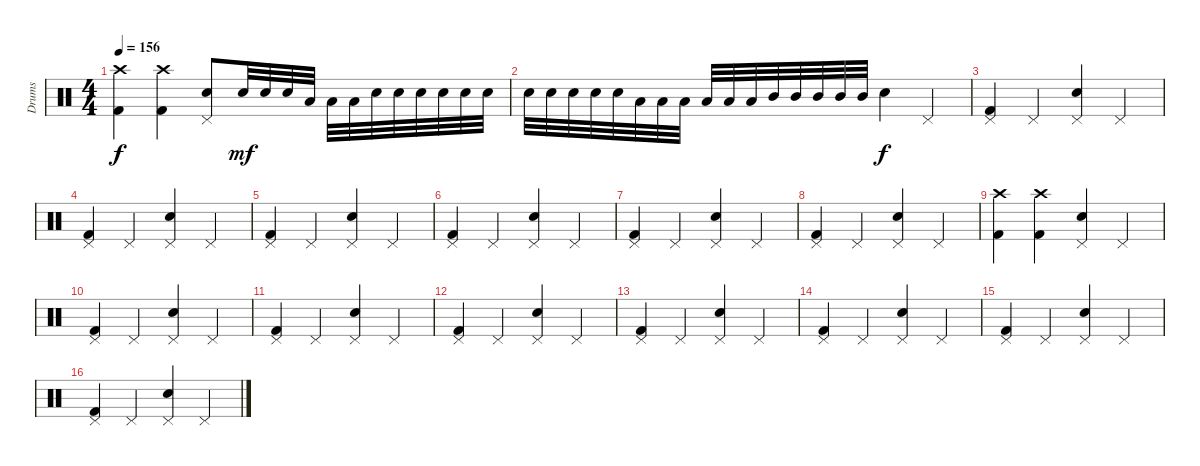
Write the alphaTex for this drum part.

\track ("Drums" "Drums") {instrument percussion}
\staff {score}
\articulation defaults
\ts (4 4)
\tempo 156
\clef neutral
\ks c
("Crash high (hit)" "Kick (hit) 2").4{dy f} ("Crash high (hit)" "Kick (hit) 2").4 ("Pedal Hi-Hat (hit)" "Electric Snare (hit)").8 "Electric Snare (hit)".32{dy mf} "Electric Snare (hit)".32 "Electric Snare (hit)".32 "Low Tom (hit)".32 "Low Tom (hit)".32 "Low Tom (hit)".32 "Electric Snare (hit)".32 "Electric Snare (hit)".32 "Electric Snare (hit)".32 "Electric Snare (hit)".32 "Electric Snare (hit)".32 "Electric Snare (hit)".32 |
"Electric Snare (hit)".32 "Electric Snare (hit)".32 "Electric Snare (hit)".32 "Electric Snare (hit)".32 "Electric Snare (hit)".32 "Low Tom (hit)".32 "Low Tom (hit)".32 "Low Tom (hit)".32 "Low Tom (hit)".32 "Low Tom (hit)".32 "Low Tom (hit)".32 "Mid Tom (hit)".32 "Mid Tom (hit)".32 "Mid Tom (hit)".32 "Mid Tom (hit)".32 "Mid Tom (hit)".32 "Electric Snare (hit)".4{dy f} "Pedal Hi-Hat (hit)".4 |
("Pedal Hi-Hat (hit)" "Kick (hit) 2").4 "Pedal Hi-Hat (hit)".4 ("Pedal Hi-Hat (hit)" "Electric Snare (hit)").4 "Pedal Hi-Hat (hit)".4 |
("Pedal Hi-Hat (hit)" "Kick (hit) 2").4 "Pedal Hi-Hat (hit)".4 ("Pedal Hi-Hat (hit)" "Electric Snare (hit)").4 "Pedal Hi-Hat (hit)".4 |
("Pedal Hi-Hat (hit)" "Kick (hit) 2").4 "Pedal Hi-Hat (hit)".4 ("Pedal Hi-Hat (hit)" "Electric Snare (hit)").4 "Pedal Hi-Hat (hit)".4 |
("Pedal Hi-Hat (hit)" "Kick (hit) 2").4 "Pedal Hi-Hat (hit)".4 ("Pedal Hi-Hat (hit)" "Electric Snare (hit)").4 "Pedal Hi-Hat (hit)".4 |
("Pedal Hi-Hat (hit)" "Kick (hit) 2").4 "Pedal Hi-Hat (hit)".4 ("Pedal Hi-Hat (hit)" "Electric Snare (hit)").4 "Pedal Hi-Hat (hit)".4 |
("Pedal Hi-Hat (hit)" "Kick (hit) 2").4 "Pedal Hi-Hat (hit)".4 ("Pedal Hi-Hat (hit)" "Electric Snare (hit)").4 "Pedal Hi-Hat (hit)".4 |
("Crash high (hit)" "Kick (hit) 2").4 ("Crash high (hit)" "Kick (hit) 2").4 ("Pedal Hi-Hat (hit)" "Electric Snare (hit)").4 "Pedal Hi-Hat (hit)".4 |
("Pedal Hi-Hat (hit)" "Kick (hit) 2").4 "Pedal Hi-Hat (hit)".4 ("Pedal Hi-Hat (hit)" "Electric Snare (hit)").4 "Pedal Hi-Hat (hit)".4 |
("Pedal Hi-Hat (hit)" "Kick (hit) 2").4 "Pedal Hi-Hat (hit)".4 ("Pedal Hi-Hat (hit)" "Electric Snare (hit)").4 "Pedal Hi-Hat (hit)".4 |
("Pedal Hi-Hat (hit)" "Kick (hit) 2").4 "Pedal Hi-Hat (hit)".4 ("Pedal Hi-Hat (hit)" "Electric Snare (hit)").4 "Pedal Hi-Hat (hit)".4 |
("Pedal Hi-Hat (hit)" "Kick (hit) 2").4 "Pedal Hi-Hat (hit)".4 ("Pedal Hi-Hat (hit)" "Electric Snare (hit)").4 "Pedal Hi-Hat (hit)".4 |
("Pedal Hi-Hat (hit)" "Kick (hit) 2").4 "Pedal Hi-Hat (hit)".4 ("Pedal Hi-Hat (hit)" "Electric Snare (hit)").4 "Pedal Hi-Hat (hit)".4 |
("Pedal Hi-Hat (hit)" "Kick (hit) 2").4 "Pedal Hi-Hat (hit)".4 ("Pedal Hi-Hat (hit)" "Electric Snare (hit)").4 "Pedal Hi-Hat (hit)".4 |
("Pedal Hi-Hat (hit)" "Kick (hit) 2").4 "Pedal Hi-Hat (hit)".4 ("Pedal Hi-Hat (hit)" "Electric Snare (hit)").4 "Pedal Hi-Hat (hit)".4
